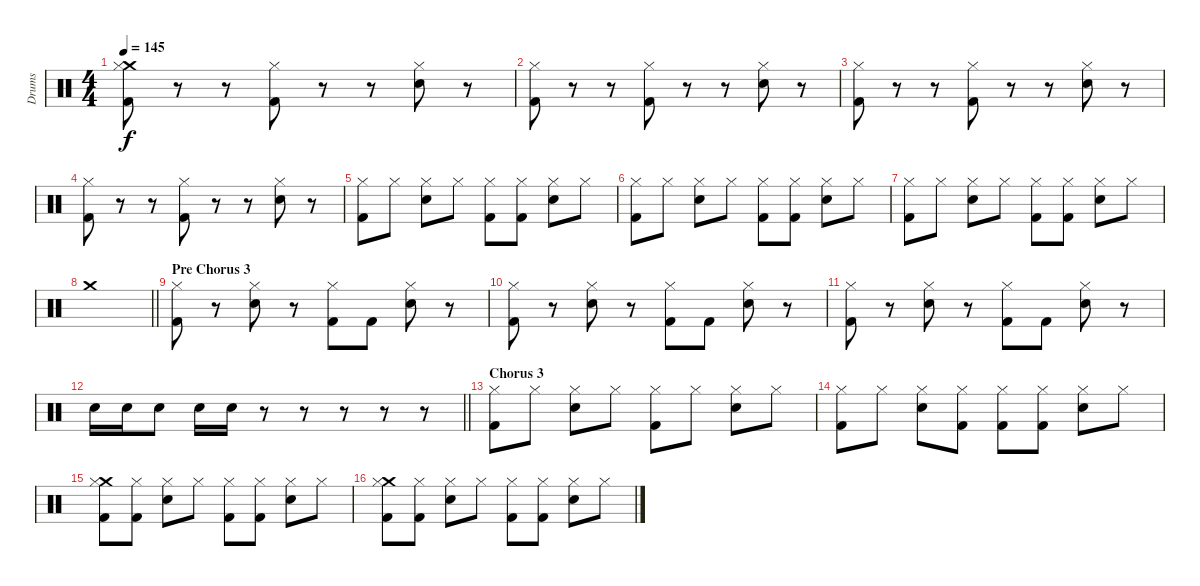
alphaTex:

\track ("Drums" "Drums") {instrument percussion}
\staff {score}
\articulation defaults
\ts (4 4)
\tempo 145
\clef neutral
\ks c
("Crash medium (hit)" "Hi-Hat (closed)" "Kick (hit) 2").8{dy f} r.8 r.8 ("Hi-Hat (closed)" "Kick (hit) 2").8 r.8 r.8 ("Hi-Hat (closed)" "Electric Snare (hit)").8 r.8 |
("Hi-Hat (closed)" "Kick (hit) 2").8 r.8 r.8 ("Hi-Hat (closed)" "Kick (hit) 2").8 r.8 r.8 ("Hi-Hat (closed)" "Electric Snare (hit)").8 r.8 |
("Hi-Hat (closed)" "Kick (hit) 2").8 r.8 r.8 ("Hi-Hat (closed)" "Kick (hit) 2").8 r.8 r.8 ("Hi-Hat (closed)" "Electric Snare (hit)").8 r.8 |
("Hi-Hat (closed)" "Kick (hit) 2").8 r.8 r.8 ("Hi-Hat (closed)" "Kick (hit) 2").8 r.8 r.8 ("Hi-Hat (closed)" "Electric Snare (hit)").8 r.8 |
("Hi-Hat (closed)" "Kick (hit) 2").8 "Hi-Hat (closed)".8 ("Hi-Hat (closed)" "Electric Snare (hit)").8 "Hi-Hat (closed)".8 ("Hi-Hat (closed)" "Kick (hit) 2").8 ("Hi-Hat (closed)" "Kick (hit) 2").8 ("Hi-Hat (closed)" "Electric Snare (hit)").8 "Hi-Hat (closed)".8 |
("Hi-Hat (closed)" "Kick (hit) 2").8 "Hi-Hat (closed)".8 ("Hi-Hat (closed)" "Electric Snare (hit)").8 "Hi-Hat (closed)".8 ("Hi-Hat (closed)" "Kick (hit) 2").8 ("Hi-Hat (closed)" "Kick (hit) 2").8 ("Hi-Hat (closed)" "Electric Snare (hit)").8 "Hi-Hat (closed)".8 |
("Hi-Hat (closed)" "Kick (hit) 2").8 "Hi-Hat (closed)".8 ("Hi-Hat (closed)" "Electric Snare (hit)").8 "Hi-Hat (closed)".8 ("Hi-Hat (closed)" "Kick (hit) 2").8 ("Hi-Hat (closed)" "Kick (hit) 2").8 ("Hi-Hat (closed)" "Electric Snare (hit)").8 "Hi-Hat (closed)".8 |
\barLineRight lightlight "Crash medium (hit)".1
|
\section ("" "Pre Chorus 3")
("Hi-Hat (closed)" "Kick (hit) 2").8 r.8 ("Hi-Hat (closed)" "Electric Snare (hit)").8 r.8 ("Hi-Hat (closed)" "Kick (hit) 2").8 "Kick (hit) 2".8 ("Hi-Hat (closed)" "Electric Snare (hit)").8 r.8 |
("Hi-Hat (closed)" "Kick (hit) 2").8 r.8 ("Hi-Hat (closed)" "Electric Snare (hit)").8 r.8 ("Hi-Hat (closed)" "Kick (hit) 2").8 "Kick (hit) 2".8 ("Hi-Hat (closed)" "Electric Snare (hit)").8 r.8 |
("Hi-Hat (closed)" "Kick (hit) 2").8 r.8 ("Hi-Hat (closed)" "Electric Snare (hit)").8 r.8 ("Hi-Hat (closed)" "Kick (hit) 2").8 "Kick (hit) 2".8 ("Hi-Hat (closed)" "Electric Snare (hit)").8 r.8 |
\barLineRight lightlight "Electric Snare (hit)".16 "Electric Snare (hit)".16 "Electric Snare (hit)".8 "Electric Snare (hit)".16 "Electric Snare (hit)".16
r.8 r.8 r.8 r.8 r.8 |
\section ("" "Chorus 3")
("Hi-Hat (closed)" "Kick (hit) 2").8 "Hi-Hat (closed)".8 ("Hi-Hat (closed)" "Electric Snare (hit)").8 "Hi-Hat (closed)".8 ("Hi-Hat (closed)" "Kick (hit) 2").8 "Hi-Hat (closed)".8 ("Hi-Hat (closed)" "Electric Snare (hit)").8 "Hi-Hat (closed)".8 |
("Hi-Hat (closed)" "Kick (hit) 2").8 "Hi-Hat (closed)".8 ("Hi-Hat (closed)" "Electric Snare (hit)").8 ("Hi-Hat (closed)" "Kick (hit) 2").8 ("Hi-Hat (closed)" "Kick (hit) 2").8 ("Hi-Hat (closed)" "Kick (hit) 2").8 ("Hi-Hat (closed)" "Electric Snare (hit)").8 "Hi-Hat (closed)".8 |
("Crash medium (hit)" "Hi-Hat (closed)" "Kick (hit) 2").8 ("Hi-Hat (closed)" "Kick (hit) 2").8 ("Hi-Hat (closed)" "Electric Snare (hit)").8 "Hi-Hat (closed)".8 ("Hi-Hat (closed)" "Kick (hit) 2").8 ("Hi-Hat (closed)" "Kick (hit) 2").8 ("Hi-Hat (closed)" "Electric Snare (hit)").8 "Hi-Hat (closed)".8 |
("Crash medium (hit)" "Hi-Hat (closed)" "Kick (hit) 2").8 ("Hi-Hat (closed)" "Kick (hit) 2").8 ("Hi-Hat (closed)" "Electric Snare (hit)").8 "Hi-Hat (closed)".8 ("Hi-Hat (closed)" "Kick (hit) 2").8 ("Hi-Hat (closed)" "Kick (hit) 2").8 ("Hi-Hat (closed)" "Electric Snare (hit)").8 "Hi-Hat (closed)".8
